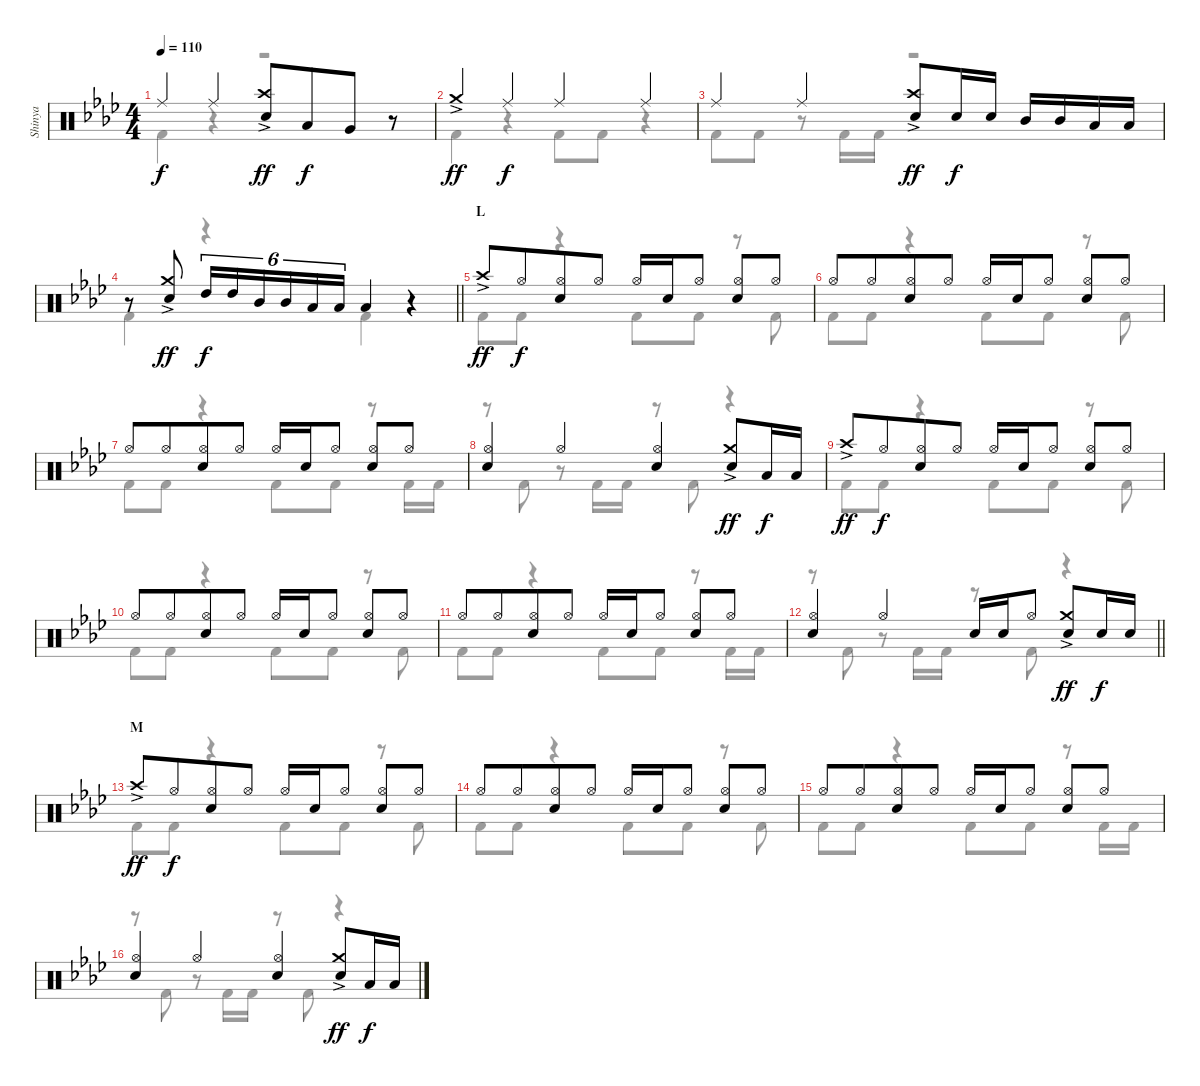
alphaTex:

\track ("Shinya" "Shinya") {instrument percussion}
\staff {score}
\articulation defaults
\voice
\ts (4 4)
\tempo 110
\clef neutral
\ks fminor "Ride (middle)".4{dy f} "Ride (middle)".4
("Crash high (hit)"{ac} "Snare (hit) 2").8{dy ff} "Low Tom (hit)".8{dy f beam merge} "Very Low Tom (hit)".8 r.8 |
"Crash medium (hit)"{ac}.4{dy ff} "Ride (middle)".4{dy f} "Ride (middle)".4 "Ride (middle)".4 |
"Ride (middle)".4 "Ride (middle)".4 ("Crash high (hit)"{ac} "Snare (hit) 2").8{dy ff} "Snare (hit) 2".16{dy f} "Snare (hit) 2".16 "Mid Tom (hit)".16 "Mid Tom (hit)".16 "Low Tom (hit)".16 "Low Tom (hit)".16 |
\barLineRight lightlight
r.8 ("Crash medium (hit)"{ac} "Snare (hit) 2").8{dy ff} "High Tom (hit)".16{tu (6 4) dy f} "High Tom (hit)".16{tu (6 4)} "Mid Tom (hit)".16{tu (6 4)} "Mid Tom (hit)".16{tu (6 4)} "Low Tom (hit)".16{tu (6 4)} "Low Tom (hit)".16{tu (6 4)} "Low Tom (hit)".4 r.4 |
\section ("" "L")
"Crash high (hit)"{ac}.8{dy ff} "Hi-Hat (open)".8{dy f beam merge} ("Hi-Hat (open)" "Snare (hit) 2").8 "Hi-Hat (open)".8 "Hi-Hat (open)".16 "Snare (hit) 2".16 "Hi-Hat (open)".8 ("Hi-Hat (open)" "Snare (hit) 2").8 "Hi-Hat (open)".8 |
"Hi-Hat (open)".8 "Hi-Hat (open)".8{beam merge} ("Hi-Hat (open)" "Snare (hit) 2").8 "Hi-Hat (open)".8 "Hi-Hat (open)".16 "Snare (hit) 2".16 "Hi-Hat (open)".8 ("Hi-Hat (open)" "Snare (hit) 2").8 "Hi-Hat (open)".8 |
"Hi-Hat (open)".8 "Hi-Hat (open)".8{beam merge} ("Hi-Hat (open)" "Snare (hit) 2").8 "Hi-Hat (open)".8 "Hi-Hat (open)".16 "Snare (hit) 2".16 "Hi-Hat (open)".8 ("Hi-Hat (open)" "Snare (hit) 2").8 "Hi-Hat (open)".8 |
("Hi-Hat (open)" "Snare (hit) 2").4 "Hi-Hat (open)".4 ("Hi-Hat (open)" "Snare (hit) 2").4 ("Crash medium (hit)"{ac} "Snare (hit) 2").8{dy ff} "Low Tom (hit)".16{dy f} "Low Tom (hit)".16 |
"Crash high (hit)"{ac}.8{dy ff} "Hi-Hat (open)".8{dy f beam merge} ("Hi-Hat (open)" "Snare (hit) 2").8 "Hi-Hat (open)".8 "Hi-Hat (open)".16 "Snare (hit) 2".16 "Hi-Hat (open)".8 ("Hi-Hat (open)" "Snare (hit) 2").8 "Hi-Hat (open)".8 |
"Hi-Hat (open)".8 "Hi-Hat (open)".8{beam merge} ("Hi-Hat (open)" "Snare (hit) 2").8 "Hi-Hat (open)".8 "Hi-Hat (open)".16 "Snare (hit) 2".16 "Hi-Hat (open)".8 ("Hi-Hat (open)" "Snare (hit) 2").8 "Hi-Hat (open)".8 |
"Hi-Hat (open)".8 "Hi-Hat (open)".8{beam merge} ("Hi-Hat (open)" "Snare (hit) 2").8 "Hi-Hat (open)".8 "Hi-Hat (open)".16 "Snare (hit) 2".16 "Hi-Hat (open)".8 ("Hi-Hat (open)" "Snare (hit) 2").8 "Hi-Hat (open)".8 |
\barLineRight lightlight
("Hi-Hat (open)" "Snare (hit) 2").4 "Hi-Hat (open)".4 "Snare (hit) 2".16 "Snare (hit) 2".16 "Hi-Hat (open)".8 ("Crash medium (hit)"{ac} "Snare (hit) 2").8{dy ff} "Snare (hit) 2".16{dy f} "Snare (hit) 2".16 |
\section ("" "M")
"Crash high (hit)"{ac}.8{dy ff} "Hi-Hat (open)".8{dy f beam merge} ("Hi-Hat (open)" "Snare (hit) 2").8 "Hi-Hat (open)".8 "Hi-Hat (open)".16 "Snare (hit) 2".16 "Hi-Hat (open)".8 ("Hi-Hat (open)" "Snare (hit) 2").8 "Hi-Hat (open)".8 |
"Hi-Hat (open)".8 "Hi-Hat (open)".8{beam merge} ("Hi-Hat (open)" "Snare (hit) 2").8 "Hi-Hat (open)".8 "Hi-Hat (open)".16 "Snare (hit) 2".16 "Hi-Hat (open)".8 ("Hi-Hat (open)" "Snare (hit) 2").8 "Hi-Hat (open)".8 |
"Hi-Hat (open)".8 "Hi-Hat (open)".8{beam merge} ("Hi-Hat (open)" "Snare (hit) 2").8 "Hi-Hat (open)".8 "Hi-Hat (open)".16 "Snare (hit) 2".16 "Hi-Hat (open)".8 ("Hi-Hat (open)" "Snare (hit) 2").8 "Hi-Hat (open)".8 |
("Hi-Hat (open)" "Snare (hit) 2").4 "Hi-Hat (open)".4 ("Hi-Hat (open)" "Snare (hit) 2").4 ("Crash medium (hit)"{ac} "Snare (hit) 2").8{dy ff} "Low Tom (hit)".16{dy f} "Low Tom (hit)".16
\voice
\clef neutral
\ottava regular
\simile none
\ks fminor "Kick (hit) 2".4{dy f}
r.4 r.2 |
"Kick (hit) 2".4 r.4 "Kick (hit) 2".8 "Kick (hit) 2".8 r.4 |
"Kick (hit) 2".8 "Kick (hit) 2".8 r.8 "Kick (hit) 2".16 "Kick (hit) 2".16 r.2 |
\barLineRight lightlight "Kick (hit) 2".4
r.4 "Kick (hit) 2".4 r.4 |
"Kick (hit) 2".8 "Kick (hit) 2".8 r.4 "Kick (hit) 2".8 "Kick (hit) 2".8 r.8 "Kick (hit) 2".8 |
"Kick (hit) 2".8 "Kick (hit) 2".8 r.4 "Kick (hit) 2".8 "Kick (hit) 2".8 r.8 "Kick (hit) 2".8 |
"Kick (hit) 2".8 "Kick (hit) 2".8 r.4 "Kick (hit) 2".8 "Kick (hit) 2".8 r.8 "Kick (hit) 2".16 "Kick (hit) 2".16 |
r.8 "Kick (hit) 2".8 r.8 "Kick (hit) 2".16 "Kick (hit) 2".16 r.8 "Kick (hit) 2".8 r.4 |
"Kick (hit) 2".8 "Kick (hit) 2".8 r.4 "Kick (hit) 2".8 "Kick (hit) 2".8 r.8 "Kick (hit) 2".8 |
"Kick (hit) 2".8 "Kick (hit) 2".8 r.4 "Kick (hit) 2".8 "Kick (hit) 2".8 r.8 "Kick (hit) 2".8 |
"Kick (hit) 2".8 "Kick (hit) 2".8 r.4 "Kick (hit) 2".8 "Kick (hit) 2".8 r.8 "Kick (hit) 2".16 "Kick (hit) 2".16 |
\barLineRight lightlight
r.8 "Kick (hit) 2".8 r.8 "Kick (hit) 2".16 "Kick (hit) 2".16 r.8 "Kick (hit) 2".8 r.4 |
"Kick (hit) 2".8 "Kick (hit) 2".8 r.4 "Kick (hit) 2".8 "Kick (hit) 2".8 r.8 "Kick (hit) 2".8 |
"Kick (hit) 2".8 "Kick (hit) 2".8 r.4 "Kick (hit) 2".8 "Kick (hit) 2".8 r.8 "Kick (hit) 2".8 |
"Kick (hit) 2".8 "Kick (hit) 2".8 r.4 "Kick (hit) 2".8 "Kick (hit) 2".8 r.8 "Kick (hit) 2".16 "Kick (hit) 2".16 |
r.8 "Kick (hit) 2".8 r.8 "Kick (hit) 2".16 "Kick (hit) 2".16 r.8 "Kick (hit) 2".8 r.4
